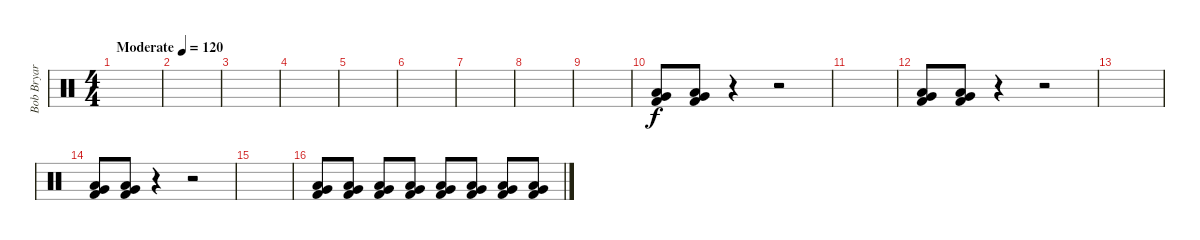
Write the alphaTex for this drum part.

\track ("Bob Bryar" "Bob Bryar") {instrument percussion}
\staff {score}
\articulation defaults
\ts (4 4)
\tempo (120 "Moderate")
\clef neutral
\ks c
|
|
|
|
|
|
|
|
|
("Very Low Tom (hit)" "Low Tom (hit)" "Kick (hit) 2").8{volume 16} ("Very Low Tom (hit)" "Low Tom (hit)" "Kick (hit) 2").8 r.4 r.2 |
|
("Very Low Tom (hit)" "Low Tom (hit)" "Kick (hit) 2").8 ("Very Low Tom (hit)" "Low Tom (hit)" "Kick (hit) 2").8 r.4 r.2 |
|
("Very Low Tom (hit)" "Low Tom (hit)" "Kick (hit) 2").8 ("Very Low Tom (hit)" "Low Tom (hit)" "Kick (hit) 2").8 r.4 r.2 |
|
("Very Low Tom (hit)" "Low Tom (hit)" "Kick (hit) 2").8 ("Very Low Tom (hit)" "Low Tom (hit)" "Kick (hit) 2").8 ("Very Low Tom (hit)" "Low Tom (hit)" "Kick (hit) 2").8{volume 2} ("Very Low Tom (hit)" "Low Tom (hit)" "Kick (hit) 2").8{volume 4} ("Very Low Tom (hit)" "Low Tom (hit)" "Kick (hit) 2").8{volume 6} ("Very Low Tom (hit)" "Low Tom (hit)" "Kick (hit) 2").8{volume 7} ("Very Low Tom (hit)" "Low Tom (hit)" "Kick (hit) 2").8{volume 8} ("Very Low Tom (hit)" "Low Tom (hit)" "Kick (hit) 2").8{volume 9}
